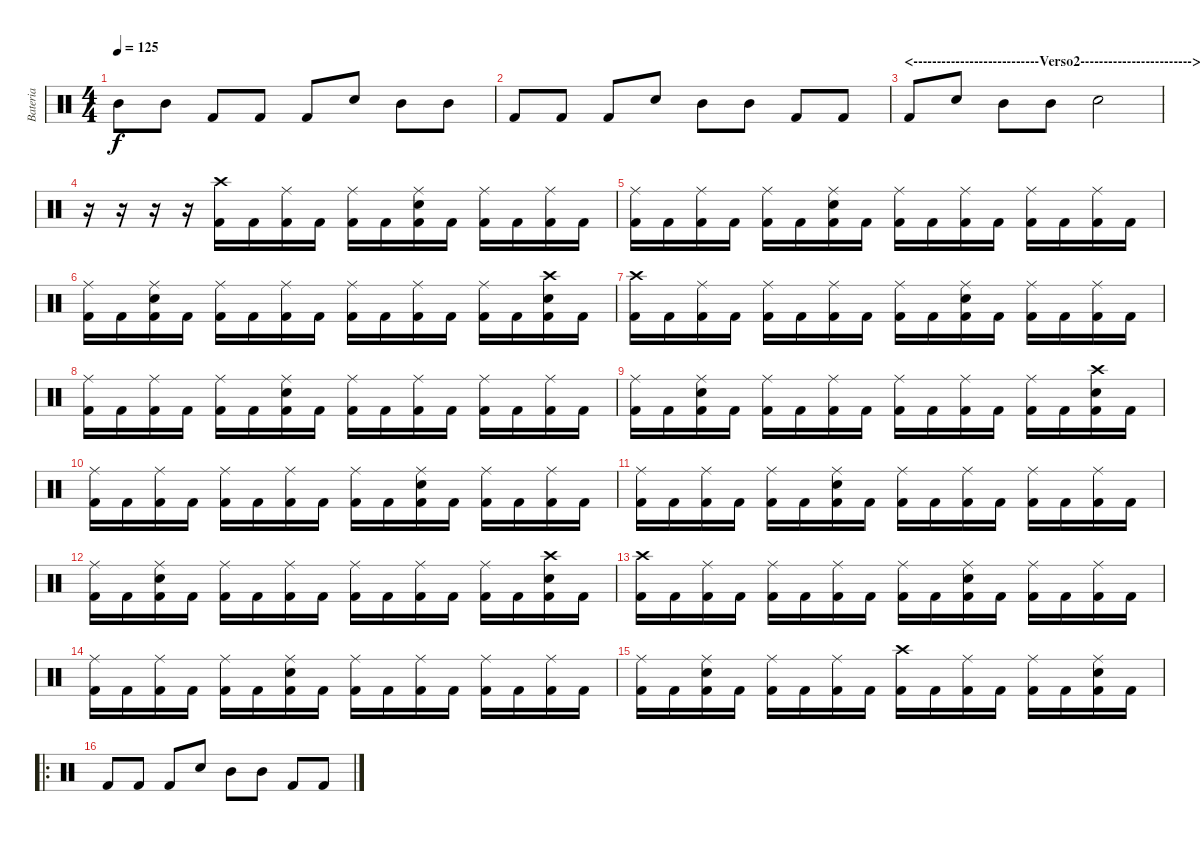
\track ("Bateria" "Bateria") {instrument percussion}
\staff {score}
\articulation defaults
\ts (4 4)
\tempo 125
\clef neutral
\ks c "Mid Tom (hit)".8{dy f} "Mid Tom (hit)".8 "Kick (hit) 2".8 "Kick (hit) 2".8 "Kick (hit) 2".8 "Snare (hit) 2".8 "Mid Tom (hit)".8 "Mid Tom (hit)".8
|
"Kick (hit) 2".8 "Kick (hit) 2".8 "Kick (hit) 2".8 "Snare (hit) 2".8 "Mid Tom (hit)".8 "Mid Tom (hit)".8 "Kick (hit) 2".8 "Kick (hit) 2".8 |
\section ("" "<---------------------------Verso2------------------------>")
"Kick (hit) 2".8 "Snare (hit) 2".8 "Mid Tom (hit)".8 "Mid Tom (hit)".8 "Snare (hit) 2".2 |
r.16 r.16 r.16 r.16 ("Crash high (hit)" "Kick (hit) 2").16 "Kick (hit) 2".16 ("Kick (hit) 2" "Ride (middle)").16 "Kick (hit) 2".16 ("Kick (hit) 2" "Ride (middle)").16 "Kick (hit) 2".16 ("Snare (hit) 2" "Kick (hit) 2" "Ride (middle)").16 "Kick (hit) 2".16 ("Kick (hit) 2" "Ride (middle)").16 "Kick (hit) 2".16 ("Kick (hit) 2" "Ride (middle)").16 "Kick (hit) 2".16 |
("Kick (hit) 2" "Ride (middle)").16 "Kick (hit) 2".16 ("Kick (hit) 2" "Ride (middle)").16 "Kick (hit) 2".16 ("Kick (hit) 2" "Ride (middle)").16 "Kick (hit) 2".16 ("Snare (hit) 2" "Kick (hit) 2" "Ride (middle)").16 "Kick (hit) 2".16 ("Kick (hit) 2" "Ride (middle)").16 "Kick (hit) 2".16 ("Kick (hit) 2" "Ride (middle)").16 "Kick (hit) 2".16 ("Kick (hit) 2" "Ride (middle)").16 "Kick (hit) 2".16 ("Kick (hit) 2" "Ride (middle)").16 "Kick (hit) 2".16 |
("Kick (hit) 2" "Ride (middle)").16 "Kick (hit) 2".16 ("Snare (hit) 2" "Kick (hit) 2" "Ride (middle)").16 "Kick (hit) 2".16 ("Kick (hit) 2" "Ride (middle)").16 "Kick (hit) 2".16 ("Kick (hit) 2" "Ride (middle)").16 "Kick (hit) 2".16 ("Kick (hit) 2" "Ride (middle)").16 "Kick (hit) 2".16 ("Kick (hit) 2" "Ride (middle)").16 "Kick (hit) 2".16 ("Kick (hit) 2" "Ride (middle)").16 "Kick (hit) 2".16 ("Snare (hit) 2" "Kick (hit) 2" "Crash high (hit)").16 "Kick (hit) 2".16 |
("Kick (hit) 2" "Crash high (hit)").16 "Kick (hit) 2".16 ("Kick (hit) 2" "Ride (middle)").16 "Kick (hit) 2".16 ("Kick (hit) 2" "Ride (middle)").16 "Kick (hit) 2".16 ("Kick (hit) 2" "Ride (middle)").16 "Kick (hit) 2".16 ("Kick (hit) 2" "Ride (middle)").16 "Kick (hit) 2".16 ("Snare (hit) 2" "Kick (hit) 2" "Ride (middle)").16 "Kick (hit) 2".16 ("Kick (hit) 2" "Ride (middle)").16 "Kick (hit) 2".16 ("Kick (hit) 2" "Ride (middle)").16 "Kick (hit) 2".16 |
("Kick (hit) 2" "Ride (middle)").16 "Kick (hit) 2".16 ("Kick (hit) 2" "Ride (middle)").16 "Kick (hit) 2".16 ("Kick (hit) 2" "Ride (middle)").16 "Kick (hit) 2".16 ("Snare (hit) 2" "Kick (hit) 2" "Ride (middle)").16 "Kick (hit) 2".16 ("Kick (hit) 2" "Ride (middle)").16 "Kick (hit) 2".16 ("Kick (hit) 2" "Ride (middle)").16 "Kick (hit) 2".16 ("Kick (hit) 2" "Ride (middle)").16 "Kick (hit) 2".16 ("Kick (hit) 2" "Ride (middle)").16 "Kick (hit) 2".16 |
("Kick (hit) 2" "Ride (middle)").16 "Kick (hit) 2".16 ("Snare (hit) 2" "Kick (hit) 2" "Ride (middle)").16 "Kick (hit) 2".16 ("Kick (hit) 2" "Ride (middle)").16 "Kick (hit) 2".16 ("Kick (hit) 2" "Ride (middle)").16 "Kick (hit) 2".16 ("Kick (hit) 2" "Ride (middle)").16 "Kick (hit) 2".16 ("Kick (hit) 2" "Ride (middle)").16 "Kick (hit) 2".16 ("Kick (hit) 2" "Ride (middle)").16 "Kick (hit) 2".16 ("Snare (hit) 2" "Kick (hit) 2" "Crash high (hit)").16 "Kick (hit) 2".16 |
("Kick (hit) 2" "Ride (middle)").16 "Kick (hit) 2".16 ("Kick (hit) 2" "Ride (middle)").16 "Kick (hit) 2".16 ("Kick (hit) 2" "Ride (middle)").16 "Kick (hit) 2".16 ("Kick (hit) 2" "Ride (middle)").16 "Kick (hit) 2".16 ("Kick (hit) 2" "Ride (middle)").16 "Kick (hit) 2".16 ("Snare (hit) 2" "Kick (hit) 2" "Ride (middle)").16 "Kick (hit) 2".16 ("Kick (hit) 2" "Ride (middle)").16 "Kick (hit) 2".16 ("Kick (hit) 2" "Ride (middle)").16 "Kick (hit) 2".16 |
("Kick (hit) 2" "Ride (middle)").16 "Kick (hit) 2".16 ("Kick (hit) 2" "Ride (middle)").16 "Kick (hit) 2".16 ("Kick (hit) 2" "Ride (middle)").16 "Kick (hit) 2".16 ("Snare (hit) 2" "Kick (hit) 2" "Ride (middle)").16 "Kick (hit) 2".16 ("Kick (hit) 2" "Ride (middle)").16 "Kick (hit) 2".16 ("Kick (hit) 2" "Ride (middle)").16 "Kick (hit) 2".16 ("Kick (hit) 2" "Ride (middle)").16 "Kick (hit) 2".16 ("Kick (hit) 2" "Ride (middle)").16 "Kick (hit) 2".16 |
("Kick (hit) 2" "Ride (middle)").16 "Kick (hit) 2".16 ("Snare (hit) 2" "Kick (hit) 2" "Ride (middle)").16 "Kick (hit) 2".16 ("Kick (hit) 2" "Ride (middle)").16 "Kick (hit) 2".16 ("Kick (hit) 2" "Ride (middle)").16 "Kick (hit) 2".16 ("Kick (hit) 2" "Ride (middle)").16 "Kick (hit) 2".16 ("Kick (hit) 2" "Ride (middle)").16 "Kick (hit) 2".16 ("Kick (hit) 2" "Ride (middle)").16 "Kick (hit) 2".16 ("Snare (hit) 2" "Kick (hit) 2" "Crash high (hit)").16 "Kick (hit) 2".16 |
("Kick (hit) 2" "Crash high (hit)").16 "Kick (hit) 2".16 ("Kick (hit) 2" "Ride (middle)").16 "Kick (hit) 2".16 ("Kick (hit) 2" "Ride (middle)").16 "Kick (hit) 2".16 ("Kick (hit) 2" "Ride (middle)").16 "Kick (hit) 2".16 ("Kick (hit) 2" "Ride (middle)").16 "Kick (hit) 2".16 ("Snare (hit) 2" "Kick (hit) 2" "Ride (middle)").16 "Kick (hit) 2".16 ("Kick (hit) 2" "Ride (middle)").16 "Kick (hit) 2".16 ("Kick (hit) 2" "Ride (middle)").16 "Kick (hit) 2".16 |
("Kick (hit) 2" "Ride (middle)").16 "Kick (hit) 2".16 ("Kick (hit) 2" "Ride (middle)").16 "Kick (hit) 2".16 ("Kick (hit) 2" "Ride (middle)").16 "Kick (hit) 2".16 ("Snare (hit) 2" "Kick (hit) 2" "Ride (middle)").16 "Kick (hit) 2".16 ("Kick (hit) 2" "Ride (middle)").16 "Kick (hit) 2".16 ("Kick (hit) 2" "Ride (middle)").16 "Kick (hit) 2".16 ("Kick (hit) 2" "Ride (middle)").16 "Kick (hit) 2".16 ("Kick (hit) 2" "Ride (middle)").16 "Kick (hit) 2".16 |
("Kick (hit) 2" "Ride (middle)").16 "Kick (hit) 2".16 ("Snare (hit) 2" "Kick (hit) 2" "Ride (middle)").16 "Kick (hit) 2".16 ("Kick (hit) 2" "Ride (middle)").16 "Kick (hit) 2".16 ("Kick (hit) 2" "Ride (middle)").16 "Kick (hit) 2".16 ("Kick (hit) 2" "Crash high (hit)").16 "Kick (hit) 2".16 ("Kick (hit) 2" "Ride (middle)").16 "Kick (hit) 2".16 ("Kick (hit) 2" "Ride (middle)").16 "Kick (hit) 2".16 ("Snare (hit) 2" "Kick (hit) 2" "Ride (middle)").16 "Kick (hit) 2".16 |
\ro "Kick (hit) 2".8 "Kick (hit) 2".8 "Kick (hit) 2".8 "Snare (hit) 2".8 "Mid Tom (hit)".8 "Mid Tom (hit)".8 "Kick (hit) 2".8 "Kick (hit) 2".8
